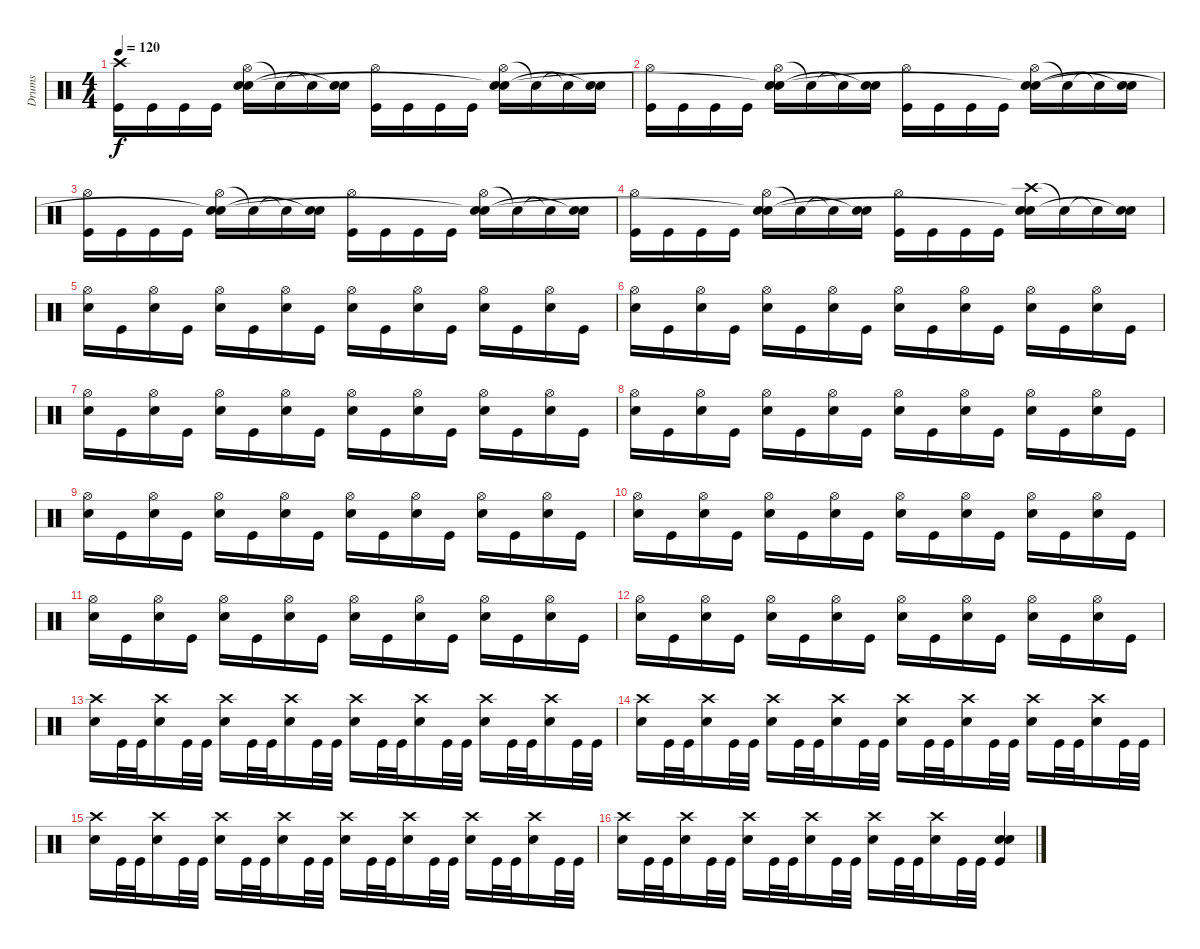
\track ("Drums" "Drums") {instrument percussion}
\staff {score}
\articulation defaults
\ts (4 4)
\tempo 120
\clef neutral
\ks c
("Crash high (hit)" "Kick (hit)").16{dy f} "Kick (hit)".16 "Kick (hit)".16 "Kick (hit)".16 ("Hi-Hat (open)" "Electric Snare (hit)" "Snare (hit)"{t}).16 "Snare (hit)"{t}.16 "Snare (hit)"{t}.16 ("Electric Snare (hit)" "Snare (hit)"{t}).16 ("Hi-Hat (open)" "Kick (hit)").16 "Kick (hit)".16 "Kick (hit)".16 "Kick (hit)".16 ("Hi-Hat (open)" "Electric Snare (hit)" "Snare (hit)"{t}).16 "Snare (hit)"{t}.16 "Snare (hit)"{t}.16 ("Electric Snare (hit)" "Snare (hit)"{t}).16 |
("Hi-Hat (open)" "Kick (hit)").16 "Kick (hit)".16 "Kick (hit)".16 "Kick (hit)".16 ("Hi-Hat (open)" "Electric Snare (hit)" "Snare (hit)"{t}).16 "Snare (hit)"{t}.16 "Snare (hit)"{t}.16 ("Electric Snare (hit)" "Snare (hit)"{t}).16 ("Hi-Hat (open)" "Kick (hit)").16 "Kick (hit)".16 "Kick (hit)".16 "Kick (hit)".16 ("Hi-Hat (open)" "Electric Snare (hit)" "Snare (hit)"{t}).16 "Snare (hit)"{t}.16 "Snare (hit)"{t}.16 ("Electric Snare (hit)" "Snare (hit)"{t}).16 |
("Hi-Hat (open)" "Kick (hit)").16 "Kick (hit)".16 "Kick (hit)".16 "Kick (hit)".16 ("Hi-Hat (open)" "Electric Snare (hit)" "Snare (hit)"{t}).16 "Snare (hit)"{t}.16 "Snare (hit)"{t}.16 ("Electric Snare (hit)" "Snare (hit)"{t}).16 ("Hi-Hat (open)" "Kick (hit)").16 "Kick (hit)".16 "Kick (hit)".16 "Kick (hit)".16 ("Hi-Hat (open)" "Electric Snare (hit)" "Snare (hit)"{t}).16 "Snare (hit)"{t}.16 "Snare (hit)"{t}.16 ("Electric Snare (hit)" "Snare (hit)"{t}).16 |
("Hi-Hat (open)" "Kick (hit)").16 "Kick (hit)".16 "Kick (hit)".16 "Kick (hit)".16 ("Hi-Hat (open)" "Electric Snare (hit)" "Snare (hit)"{t}).16 "Snare (hit)"{t}.16 "Snare (hit)"{t}.16 ("Electric Snare (hit)" "Snare (hit)"{t}).16 ("Hi-Hat (open)" "Kick (hit)").16 "Kick (hit)".16 "Kick (hit)".16 "Kick (hit)".16 ("Crash high (hit)" "Electric Snare (hit)" "Snare (hit)"{t}).16 "Snare (hit)"{t}.16 "Snare (hit)"{t}.16 ("Electric Snare (hit)" "Snare (hit)"{t}).16 |
("Hi-Hat (open)" "Electric Snare (hit)").16 "Kick (hit)".16 ("Hi-Hat (open)" "Electric Snare (hit)").16 "Kick (hit)".16 ("Hi-Hat (open)" "Electric Snare (hit)").16 "Kick (hit)".16 ("Hi-Hat (open)" "Electric Snare (hit)").16 "Kick (hit)".16 ("Hi-Hat (open)" "Electric Snare (hit)").16 "Kick (hit)".16 ("Hi-Hat (open)" "Electric Snare (hit)").16 "Kick (hit)".16 ("Hi-Hat (open)" "Electric Snare (hit)").16 "Kick (hit)".16 ("Hi-Hat (open)" "Electric Snare (hit)").16 "Kick (hit)".16 |
("Hi-Hat (open)" "Electric Snare (hit)").16 "Kick (hit)".16 ("Hi-Hat (open)" "Electric Snare (hit)").16 "Kick (hit)".16 ("Hi-Hat (open)" "Electric Snare (hit)").16 "Kick (hit)".16 ("Hi-Hat (open)" "Electric Snare (hit)").16 "Kick (hit)".16 ("Hi-Hat (open)" "Electric Snare (hit)").16 "Kick (hit)".16 ("Hi-Hat (open)" "Electric Snare (hit)").16 "Kick (hit)".16 ("Hi-Hat (open)" "Electric Snare (hit)").16 "Kick (hit)".16 ("Hi-Hat (open)" "Electric Snare (hit)").16 "Kick (hit)".16 |
("Hi-Hat (open)" "Electric Snare (hit)").16 "Kick (hit)".16 ("Hi-Hat (open)" "Electric Snare (hit)").16 "Kick (hit)".16 ("Hi-Hat (open)" "Electric Snare (hit)").16 "Kick (hit)".16 ("Hi-Hat (open)" "Electric Snare (hit)").16 "Kick (hit)".16 ("Hi-Hat (open)" "Electric Snare (hit)").16 "Kick (hit)".16 ("Hi-Hat (open)" "Electric Snare (hit)").16 "Kick (hit)".16 ("Hi-Hat (open)" "Electric Snare (hit)").16 "Kick (hit)".16 ("Hi-Hat (open)" "Electric Snare (hit)").16 "Kick (hit)".16 |
("Hi-Hat (open)" "Electric Snare (hit)").16 "Kick (hit)".16 ("Hi-Hat (open)" "Electric Snare (hit)").16 "Kick (hit)".16 ("Hi-Hat (open)" "Electric Snare (hit)").16 "Kick (hit)".16 ("Hi-Hat (open)" "Electric Snare (hit)").16 "Kick (hit)".16 ("Hi-Hat (open)" "Electric Snare (hit)").16 "Kick (hit)".16 ("Hi-Hat (open)" "Electric Snare (hit)").16 "Kick (hit)".16 ("Hi-Hat (open)" "Electric Snare (hit)").16 "Kick (hit)".16 ("Hi-Hat (open)" "Electric Snare (hit)").16 "Kick (hit)".16 |
("Hi-Hat (open)" "Electric Snare (hit)").16 "Kick (hit)".16 ("Hi-Hat (open)" "Electric Snare (hit)").16 "Kick (hit)".16 ("Hi-Hat (open)" "Electric Snare (hit)").16 "Kick (hit)".16 ("Hi-Hat (open)" "Electric Snare (hit)").16 "Kick (hit)".16 ("Hi-Hat (open)" "Electric Snare (hit)").16 "Kick (hit)".16 ("Hi-Hat (open)" "Electric Snare (hit)").16 "Kick (hit)".16 ("Hi-Hat (open)" "Electric Snare (hit)").16 "Kick (hit)".16 ("Hi-Hat (open)" "Electric Snare (hit)").16 "Kick (hit)".16 |
("Hi-Hat (open)" "Electric Snare (hit)").16 "Kick (hit)".16 ("Hi-Hat (open)" "Electric Snare (hit)").16 "Kick (hit)".16 ("Hi-Hat (open)" "Electric Snare (hit)").16 "Kick (hit)".16 ("Hi-Hat (open)" "Electric Snare (hit)").16 "Kick (hit)".16 ("Hi-Hat (open)" "Electric Snare (hit)").16 "Kick (hit)".16 ("Hi-Hat (open)" "Electric Snare (hit)").16 "Kick (hit)".16 ("Hi-Hat (open)" "Electric Snare (hit)").16 "Kick (hit)".16 ("Hi-Hat (open)" "Electric Snare (hit)").16 "Kick (hit)".16 |
("Hi-Hat (open)" "Electric Snare (hit)").16 "Kick (hit)".16 ("Hi-Hat (open)" "Electric Snare (hit)").16 "Kick (hit)".16 ("Hi-Hat (open)" "Electric Snare (hit)").16 "Kick (hit)".16 ("Hi-Hat (open)" "Electric Snare (hit)").16 "Kick (hit)".16 ("Hi-Hat (open)" "Electric Snare (hit)").16 "Kick (hit)".16 ("Hi-Hat (open)" "Electric Snare (hit)").16 "Kick (hit)".16 ("Hi-Hat (open)" "Electric Snare (hit)").16 "Kick (hit)".16 ("Hi-Hat (open)" "Electric Snare (hit)").16 "Kick (hit)".16 |
("Hi-Hat (open)" "Electric Snare (hit)").16 "Kick (hit)".16 ("Hi-Hat (open)" "Electric Snare (hit)").16 "Kick (hit)".16 ("Hi-Hat (open)" "Electric Snare (hit)").16 "Kick (hit)".16 ("Hi-Hat (open)" "Electric Snare (hit)").16 "Kick (hit)".16 ("Hi-Hat (open)" "Electric Snare (hit)").16 "Kick (hit)".16 ("Hi-Hat (open)" "Electric Snare (hit)").16 "Kick (hit)".16 ("Hi-Hat (open)" "Electric Snare (hit)").16 "Kick (hit)".16 ("Hi-Hat (open)" "Electric Snare (hit)").16 "Kick (hit)".16 |
("Crash high (hit)" "Electric Snare (hit)").16 "Kick (hit)".32 "Kick (hit)".32 ("Crash high (hit)" "Electric Snare (hit)").16 "Kick (hit)".32 "Kick (hit)".32 ("Crash high (hit)" "Electric Snare (hit)").16 "Kick (hit)".32 "Kick (hit)".32 ("Crash high (hit)" "Electric Snare (hit)").16 "Kick (hit)".32 "Kick (hit)".32 ("Crash high (hit)" "Electric Snare (hit)").16 "Kick (hit)".32 "Kick (hit)".32 ("Crash high (hit)" "Electric Snare (hit)").16 "Kick (hit)".32 "Kick (hit)".32 ("Crash high (hit)" "Electric Snare (hit)").16 "Kick (hit)".32 "Kick (hit)".32 ("Crash high (hit)" "Electric Snare (hit)").16 "Kick (hit)".32 "Kick (hit)".32 |
("Crash high (hit)" "Electric Snare (hit)").16 "Kick (hit)".32 "Kick (hit)".32 ("Crash high (hit)" "Electric Snare (hit)").16 "Kick (hit)".32 "Kick (hit)".32 ("Crash high (hit)" "Electric Snare (hit)").16 "Kick (hit)".32 "Kick (hit)".32 ("Crash high (hit)" "Electric Snare (hit)").16 "Kick (hit)".32 "Kick (hit)".32 ("Crash high (hit)" "Electric Snare (hit)").16 "Kick (hit)".32 "Kick (hit)".32 ("Crash high (hit)" "Electric Snare (hit)").16 "Kick (hit)".32 "Kick (hit)".32 ("Crash high (hit)" "Electric Snare (hit)").16 "Kick (hit)".32 "Kick (hit)".32 ("Crash high (hit)" "Electric Snare (hit)").16 "Kick (hit)".32 "Kick (hit)".32 |
("Crash high (hit)" "Electric Snare (hit)").16 "Kick (hit)".32 "Kick (hit)".32 ("Crash high (hit)" "Electric Snare (hit)").16 "Kick (hit)".32 "Kick (hit)".32 ("Crash high (hit)" "Electric Snare (hit)").16 "Kick (hit)".32 "Kick (hit)".32 ("Crash high (hit)" "Electric Snare (hit)").16 "Kick (hit)".32 "Kick (hit)".32 ("Crash high (hit)" "Electric Snare (hit)").16 "Kick (hit)".32 "Kick (hit)".32 ("Crash high (hit)" "Electric Snare (hit)").16 "Kick (hit)".32 "Kick (hit)".32 ("Crash high (hit)" "Electric Snare (hit)").16 "Kick (hit)".32 "Kick (hit)".32 ("Crash high (hit)" "Electric Snare (hit)").16 "Kick (hit)".32 "Kick (hit)".32 |
("Crash high (hit)" "Electric Snare (hit)").16 "Kick (hit)".32 "Kick (hit)".32 ("Crash high (hit)" "Electric Snare (hit)").16 "Kick (hit)".32 "Kick (hit)".32 ("Crash high (hit)" "Electric Snare (hit)").16 "Kick (hit)".32 "Kick (hit)".32 ("Crash high (hit)" "Electric Snare (hit)").16 "Kick (hit)".32 "Kick (hit)".32 ("Crash high (hit)" "Electric Snare (hit)").16 "Kick (hit)".32 "Kick (hit)".32 ("Crash high (hit)" "Electric Snare (hit)").16 "Kick (hit)".32 "Kick (hit)".32 ("Snare (hit) 2" "Electric Snare (hit)" "Kick (hit)").4
